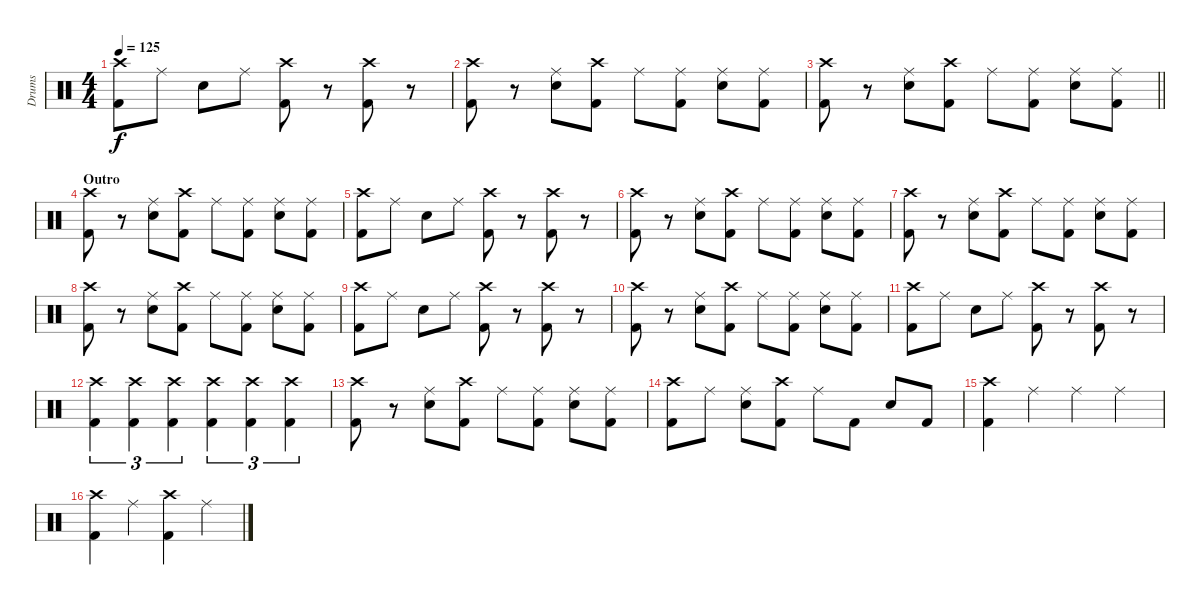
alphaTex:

\track ("Drums" "Drums") {instrument percussion}
\staff {score}
\articulation defaults
\ts (4 4)
\tempo 125
\clef neutral
\ks c
("Crash high (hit)" "Kick (hit) 2").8{dy f} "Ride (middle)".8 "Snare (hit) 2".8 "Ride (middle)".8 ("Crash high (hit)" "Kick (hit) 2").8 r.8 ("Crash high (hit)" "Kick (hit) 2").8 r.8 |
("Crash high (hit)" "Kick (hit) 2").8 r.8 ("Ride (middle)" "Snare (hit) 2").8 ("Crash high (hit)" "Kick (hit) 2").8 "Ride (middle)".8 ("Ride (middle)" "Kick (hit) 2").8 ("Ride (middle)" "Snare (hit) 2").8 ("Ride (middle)" "Kick (hit) 2").8 |
\barLineRight lightlight
("Crash high (hit)" "Kick (hit) 2").8 r.8 ("Ride (middle)" "Snare (hit) 2").8 ("Crash high (hit)" "Kick (hit) 2").8 "Ride (middle)".8 ("Ride (middle)" "Kick (hit) 2").8 ("Ride (middle)" "Snare (hit) 2").8 ("Ride (middle)" "Kick (hit) 2").8 |
\section ("" "Outro")
("Crash high (hit)" "Kick (hit) 2").8 r.8 ("Ride (middle)" "Snare (hit) 2").8 ("Crash high (hit)" "Kick (hit) 2").8 "Ride (middle)".8 ("Ride (middle)" "Kick (hit) 2").8 ("Ride (middle)" "Snare (hit) 2").8 ("Ride (middle)" "Kick (hit) 2").8 |
("Crash high (hit)" "Kick (hit) 2").8 "Ride (middle)".8 "Snare (hit) 2".8 "Ride (middle)".8 ("Crash high (hit)" "Kick (hit) 2").8 r.8 ("Crash high (hit)" "Kick (hit) 2").8 r.8 |
("Crash high (hit)" "Kick (hit) 2").8 r.8 ("Ride (middle)" "Snare (hit) 2").8 ("Crash high (hit)" "Kick (hit) 2").8 "Ride (middle)".8 ("Ride (middle)" "Kick (hit) 2").8 ("Ride (middle)" "Snare (hit) 2").8 ("Ride (middle)" "Kick (hit) 2").8 |
("Crash high (hit)" "Kick (hit) 2").8 r.8 ("Ride (middle)" "Snare (hit) 2").8 ("Crash high (hit)" "Kick (hit) 2").8 "Ride (middle)".8 ("Ride (middle)" "Kick (hit) 2").8 ("Ride (middle)" "Snare (hit) 2").8 ("Ride (middle)" "Kick (hit) 2").8 |
("Crash high (hit)" "Kick (hit) 2").8 r.8 ("Ride (middle)" "Snare (hit) 2").8 ("Crash high (hit)" "Kick (hit) 2").8 "Ride (middle)".8 ("Ride (middle)" "Kick (hit) 2").8 ("Ride (middle)" "Snare (hit) 2").8 ("Ride (middle)" "Kick (hit) 2").8 |
("Crash high (hit)" "Kick (hit) 2").8 "Ride (middle)".8 "Snare (hit) 2".8 "Ride (middle)".8 ("Crash high (hit)" "Kick (hit) 2").8 r.8 ("Crash high (hit)" "Kick (hit) 2").8 r.8 |
("Crash high (hit)" "Kick (hit) 2").8 r.8 ("Ride (middle)" "Snare (hit) 2").8 ("Crash high (hit)" "Kick (hit) 2").8 "Ride (middle)".8 ("Ride (middle)" "Kick (hit) 2").8 ("Ride (middle)" "Snare (hit) 2").8 ("Ride (middle)" "Kick (hit) 2").8 |
("Crash high (hit)" "Kick (hit) 2").8 "Ride (middle)".8 "Snare (hit) 2".8 "Ride (middle)".8 ("Crash high (hit)" "Kick (hit) 2").8 r.8 ("Crash high (hit)" "Kick (hit) 2").8 r.8 |
("Crash high (hit)" "Kick (hit) 2").4{tu (3 2)} ("Crash high (hit)" "Kick (hit) 2").4{tu (3 2)} ("Crash high (hit)" "Kick (hit) 2").4{tu (3 2)} ("Crash high (hit)" "Kick (hit) 2").4{tu (3 2)} ("Crash high (hit)" "Kick (hit) 2").4{tu (3 2)} ("Crash high (hit)" "Kick (hit) 2").4{tu (3 2)} |
("Crash high (hit)" "Kick (hit) 2").8 r.8 ("Ride (middle)" "Snare (hit) 2").8 ("Crash high (hit)" "Kick (hit) 2").8 "Ride (middle)".8 ("Ride (middle)" "Kick (hit) 2").8 ("Ride (middle)" "Snare (hit) 2").8 ("Ride (middle)" "Kick (hit) 2").8 |
("Crash high (hit)" "Kick (hit) 2").8 "Ride (middle)".8 ("Ride (middle)" "Snare (hit) 2").8 ("Crash high (hit)" "Kick (hit) 2").8 "Ride (middle)".8 "Kick (hit) 2".8 "Snare (hit) 2".8 "Kick (hit) 2".8 |
("Crash high (hit)" "Kick (hit) 2").4 "Ride (middle)".4 "Ride (middle)".4 "Ride (middle)".4 |
("Crash high (hit)" "Kick (hit) 2").4 "Ride (middle)".4 ("Crash high (hit)" "Kick (hit) 2").4 "Ride (middle)".4
